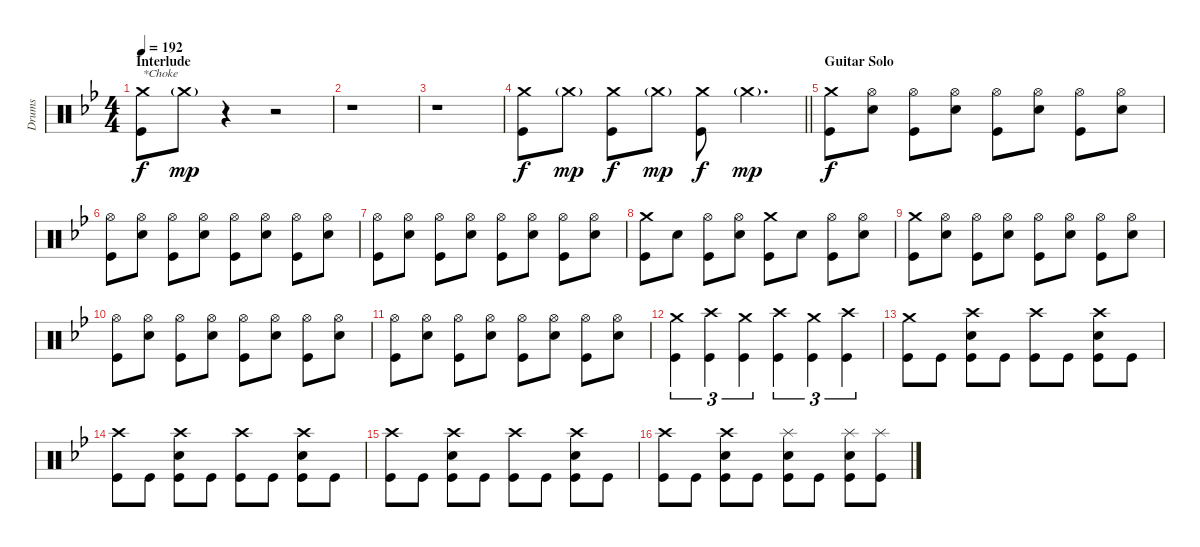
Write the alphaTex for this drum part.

\track ("Drums" "Drums") {instrument percussion}
\staff {score}
\articulation defaults
\ts (4 4)
\section ("" "Interlude")
\tempo 192
\clef neutral
\ks gminor
("Crash medium (hit)" "Kick (hit)").8{txt "*Choke" dy f} "Crash medium (hit)"{g}.8{dy mp} r.4 r.2 |
r.1 |
r.1 |
\barLineRight lightlight
("Crash medium (hit)" "Kick (hit)").8{dy f} "Crash medium (hit)"{g}.8{dy mp} ("Crash medium (hit)" "Kick (hit)").8{dy f} "Crash medium (hit)"{g}.8{dy mp} ("Crash medium (hit)" "Kick (hit)").8{dy f} "Crash medium (hit)"{g}.4{d dy mp} |
\section ("" "Guitar Solo")
("Crash medium (hit)" "Kick (hit)").8{dy f} ("Hi-Hat (open)" "Electric Snare (hit)").8 ("Hi-Hat (open)" "Kick (hit)").8 ("Hi-Hat (open)" "Electric Snare (hit)").8 ("Hi-Hat (open)" "Kick (hit)").8 ("Hi-Hat (open)" "Electric Snare (hit)").8 ("Hi-Hat (open)" "Kick (hit)").8 ("Hi-Hat (open)" "Electric Snare (hit)").8 |
("Hi-Hat (open)" "Kick (hit)").8 ("Hi-Hat (open)" "Electric Snare (hit)").8 ("Hi-Hat (open)" "Kick (hit)").8 ("Hi-Hat (open)" "Electric Snare (hit)").8 ("Hi-Hat (open)" "Kick (hit)").8 ("Hi-Hat (open)" "Electric Snare (hit)").8 ("Hi-Hat (open)" "Kick (hit)").8 ("Hi-Hat (open)" "Electric Snare (hit)").8 |
("Hi-Hat (open)" "Kick (hit)").8 ("Hi-Hat (open)" "Electric Snare (hit)").8 ("Hi-Hat (open)" "Kick (hit)").8 ("Hi-Hat (open)" "Electric Snare (hit)").8 ("Hi-Hat (open)" "Kick (hit)").8 ("Hi-Hat (open)" "Electric Snare (hit)").8 ("Hi-Hat (open)" "Kick (hit)").8 ("Hi-Hat (open)" "Electric Snare (hit)").8 |
("Crash medium (hit)" "Kick (hit)").8 "Electric Snare (hit)".8 ("Hi-Hat (open)" "Kick (hit)").8 ("Hi-Hat (open)" "Electric Snare (hit)").8 ("Crash medium (hit)" "Kick (hit)").8 "Electric Snare (hit)".8 ("Hi-Hat (open)" "Kick (hit)").8 ("Hi-Hat (open)" "Electric Snare (hit)").8 |
("Crash medium (hit)" "Kick (hit)").8 ("Hi-Hat (open)" "Electric Snare (hit)").8 ("Hi-Hat (open)" "Kick (hit)").8 ("Hi-Hat (open)" "Electric Snare (hit)").8 ("Hi-Hat (open)" "Kick (hit)").8 ("Hi-Hat (open)" "Electric Snare (hit)").8 ("Hi-Hat (open)" "Kick (hit)").8 ("Hi-Hat (open)" "Electric Snare (hit)").8 |
("Hi-Hat (open)" "Kick (hit)").8 ("Hi-Hat (open)" "Electric Snare (hit)").8 ("Hi-Hat (open)" "Kick (hit)").8 ("Hi-Hat (open)" "Electric Snare (hit)").8 ("Hi-Hat (open)" "Kick (hit)").8 ("Hi-Hat (open)" "Electric Snare (hit)").8 ("Hi-Hat (open)" "Kick (hit)").8 ("Hi-Hat (open)" "Electric Snare (hit)").8 |
("Hi-Hat (open)" "Kick (hit)").8 ("Hi-Hat (open)" "Electric Snare (hit)").8 ("Hi-Hat (open)" "Kick (hit)").8 ("Hi-Hat (open)" "Electric Snare (hit)").8 ("Hi-Hat (open)" "Kick (hit)").8 ("Hi-Hat (open)" "Electric Snare (hit)").8 ("Hi-Hat (open)" "Kick (hit)").8 ("Hi-Hat (open)" "Electric Snare (hit)").8 |
("Crash medium (hit)" "Kick (hit)").4{tu (3 2)} ("Crash high (hit)" "Kick (hit)").4{tu (3 2)} ("Crash medium (hit)" "Kick (hit)").4{tu (3 2)} ("Crash high (hit)" "Kick (hit)").4{tu (3 2)} ("Crash medium (hit)" "Kick (hit)").4{tu (3 2)} ("Crash high (hit)" "Kick (hit)").4{tu (3 2)} |
("Crash medium (hit)" "Kick (hit)").8 "Kick (hit)".8 ("Crash high (hit)" "Electric Snare (hit)" "Kick (hit)").8 "Kick (hit)".8 ("Crash high (hit)" "Kick (hit)").8 "Kick (hit)".8 ("Crash high (hit)" "Electric Snare (hit)" "Kick (hit)").8 "Kick (hit)".8 |
("Crash high (hit)" "Kick (hit)").8 "Kick (hit)".8 ("Crash high (hit)" "Electric Snare (hit)" "Kick (hit)").8 "Kick (hit)".8 ("Crash high (hit)" "Kick (hit)").8 "Kick (hit)".8 ("Crash high (hit)" "Electric Snare (hit)" "Kick (hit)").8 "Kick (hit)".8 |
("Crash high (hit)" "Kick (hit)").8 "Kick (hit)".8 ("Crash high (hit)" "Electric Snare (hit)" "Kick (hit)").8 "Kick (hit)".8 ("Crash high (hit)" "Kick (hit)").8 "Kick (hit)".8 ("Crash high (hit)" "Electric Snare (hit)" "Kick (hit)").8 "Kick (hit)".8 |
("Crash high (hit)" "Kick (hit)").8 "Kick (hit)".8 ("Crash high (hit)" "Electric Snare (hit)" "Kick (hit)").8 "Kick (hit)".8 ("Splash (hit)" "Electric Snare (hit)" "Kick (hit)").8 "Kick (hit)".8 ("Splash (hit)" "Electric Snare (hit)" "Kick (hit)").8 ("Splash (hit)" "Kick (hit)").8
